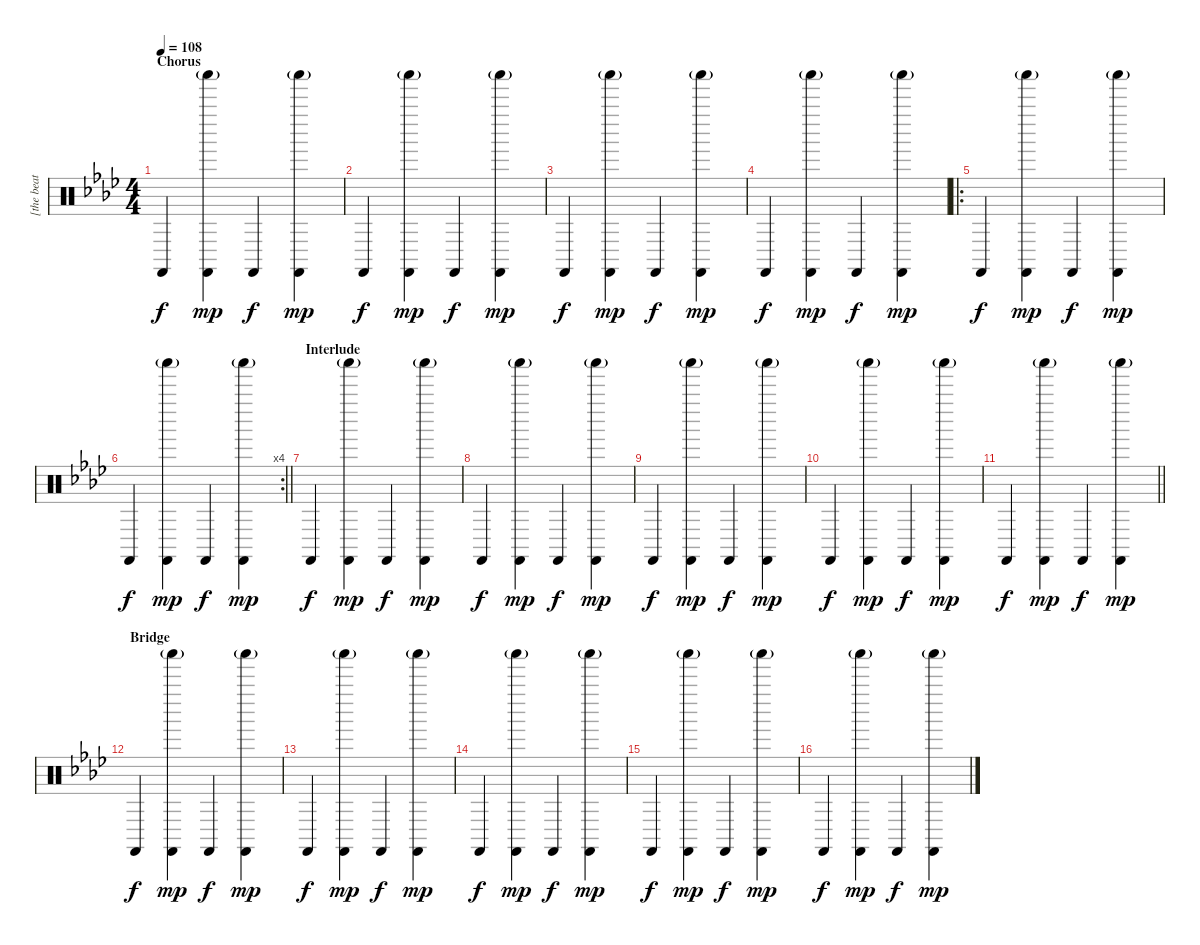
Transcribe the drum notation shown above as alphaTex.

\track (" [the beat]" " [the beat") {instrument percussion}
\staff {score}
\articulation defaults
\ts (4 4)
\section ("" "Chorus")
\tempo 108
\clef neutral
\ks fminor "Castanets (hit)".4{dy f}
("Castanets (hit)" "Shaker (hit)"{g}).4{dy mp} "Castanets (hit)".4{dy f} ("Castanets (hit)" "Shaker (hit)"{g}).4{dy mp} |
"Castanets (hit)".4{dy f} ("Castanets (hit)" "Shaker (hit)"{g}).4{dy mp} "Castanets (hit)".4{dy f} ("Castanets (hit)" "Shaker (hit)"{g}).4{dy mp} |
"Castanets (hit)".4{dy f} ("Castanets (hit)" "Shaker (hit)"{g}).4{dy mp} "Castanets (hit)".4{dy f} ("Castanets (hit)" "Shaker (hit)"{g}).4{dy mp} |
"Castanets (hit)".4{dy f} ("Castanets (hit)" "Shaker (hit)"{g}).4{dy mp} "Castanets (hit)".4{dy f} ("Castanets (hit)" "Shaker (hit)"{g}).4{dy mp} |
\ro "Castanets (hit)".4{dy f}
("Castanets (hit)" "Shaker (hit)"{g}).4{dy mp} "Castanets (hit)".4{dy f} ("Castanets (hit)" "Shaker (hit)"{g}).4{dy mp} |
\rc 4
\barLineRight lightlight "Castanets (hit)".4{dy f}
("Castanets (hit)" "Shaker (hit)"{g}).4{dy mp} "Castanets (hit)".4{dy f} ("Castanets (hit)" "Shaker (hit)"{g}).4{dy mp} |
\section ("" "Interlude")
"Castanets (hit)".4{dy f} ("Castanets (hit)" "Shaker (hit)"{g}).4{dy mp} "Castanets (hit)".4{dy f} ("Castanets (hit)" "Shaker (hit)"{g}).4{dy mp} |
"Castanets (hit)".4{dy f} ("Castanets (hit)" "Shaker (hit)"{g}).4{dy mp} "Castanets (hit)".4{dy f} ("Castanets (hit)" "Shaker (hit)"{g}).4{dy mp} |
"Castanets (hit)".4{dy f} ("Castanets (hit)" "Shaker (hit)"{g}).4{dy mp} "Castanets (hit)".4{dy f} ("Castanets (hit)" "Shaker (hit)"{g}).4{dy mp} |
"Castanets (hit)".4{dy f} ("Castanets (hit)" "Shaker (hit)"{g}).4{dy mp} "Castanets (hit)".4{dy f} ("Castanets (hit)" "Shaker (hit)"{g}).4{dy mp} |
\barLineRight lightlight "Castanets (hit)".4{dy f}
("Castanets (hit)" "Shaker (hit)"{g}).4{dy mp} "Castanets (hit)".4{dy f} ("Castanets (hit)" "Shaker (hit)"{g}).4{dy mp} |
\section ("" "Bridge")
"Castanets (hit)".4{dy f} ("Castanets (hit)" "Shaker (hit)"{g}).4{dy mp} "Castanets (hit)".4{dy f} ("Castanets (hit)" "Shaker (hit)"{g}).4{dy mp} |
"Castanets (hit)".4{dy f} ("Castanets (hit)" "Shaker (hit)"{g}).4{dy mp} "Castanets (hit)".4{dy f} ("Castanets (hit)" "Shaker (hit)"{g}).4{dy mp} |
"Castanets (hit)".4{dy f} ("Castanets (hit)" "Shaker (hit)"{g}).4{dy mp} "Castanets (hit)".4{dy f} ("Castanets (hit)" "Shaker (hit)"{g}).4{dy mp} |
"Castanets (hit)".4{dy f} ("Castanets (hit)" "Shaker (hit)"{g}).4{dy mp} "Castanets (hit)".4{dy f} ("Castanets (hit)" "Shaker (hit)"{g}).4{dy mp} |
"Castanets (hit)".4{dy f} ("Castanets (hit)" "Shaker (hit)"{g}).4{dy mp} "Castanets (hit)".4{dy f} ("Castanets (hit)" "Shaker (hit)"{g}).4{dy mp}
